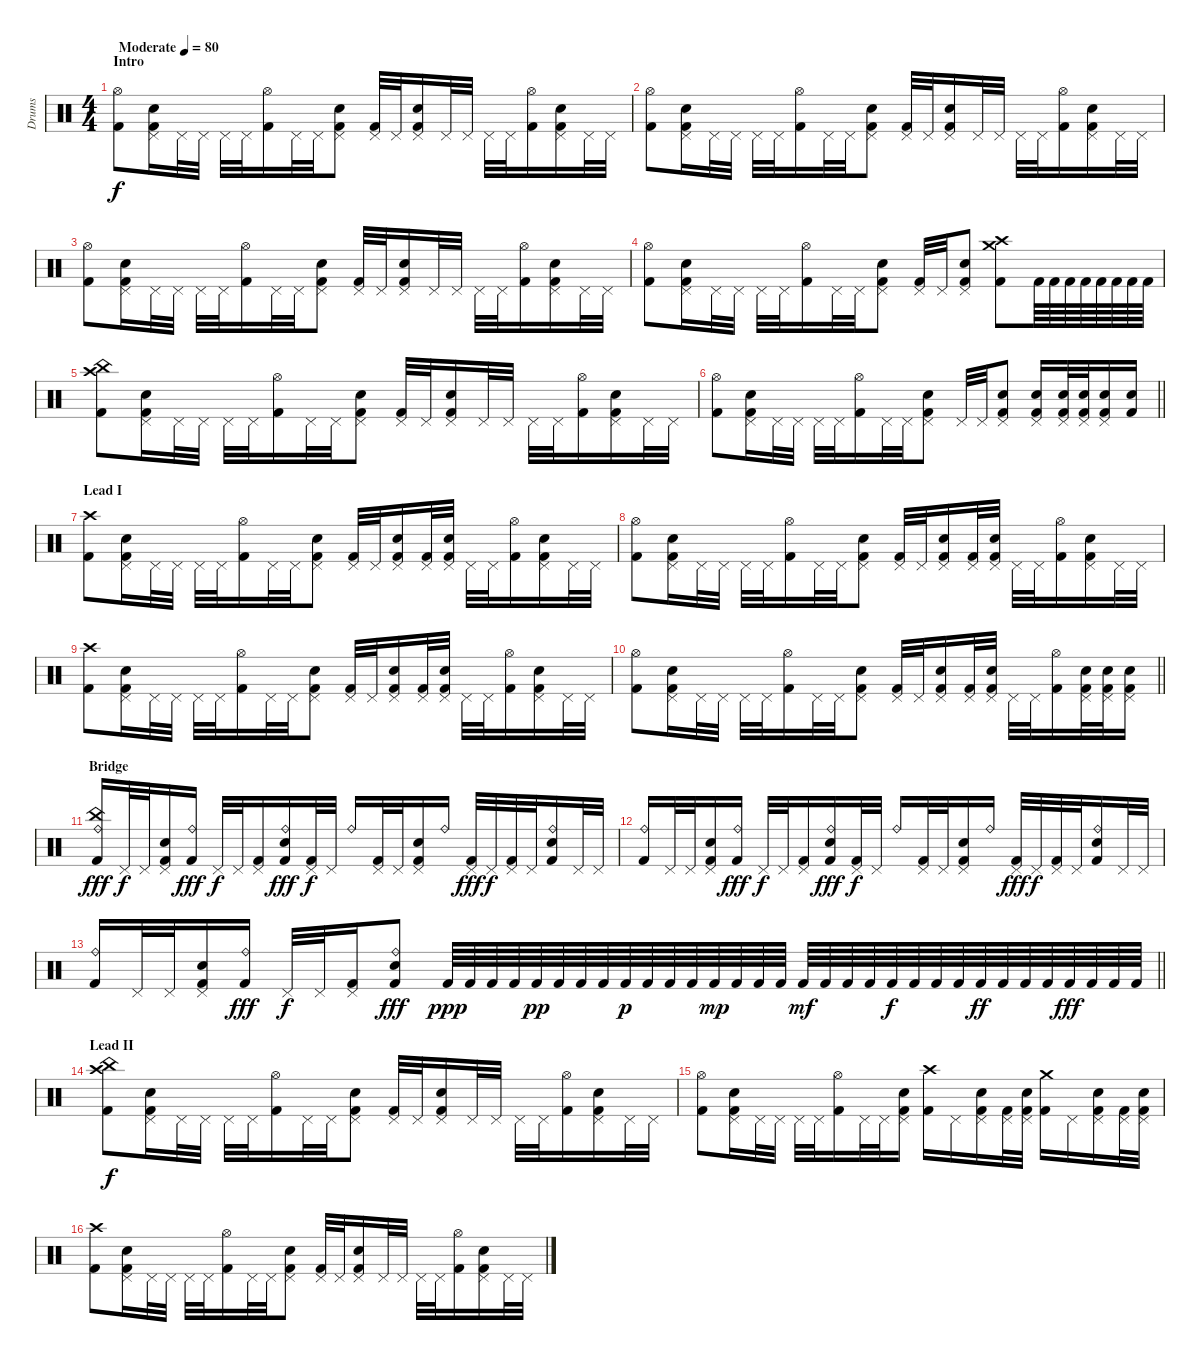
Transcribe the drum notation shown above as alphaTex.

\track ("Drums" "Drums") {instrument percussion}
\staff {score}
\articulation defaults
\ts (4 4)
\section ("" "Intro")
\tempo (80 "Moderate")
\clef neutral
\ks c
("Hi-Hat (open)" "Kick (hit) 2").8{dy f volume 4} ("Pedal Hi-Hat (hit)" "Snare (hit) 2" "Kick (hit) 2").16{volume 13} "Pedal Hi-Hat (hit)".32 "Pedal Hi-Hat (hit)".32 "Pedal Hi-Hat (hit)".32 "Pedal Hi-Hat (hit)".32 ("Hi-Hat (open)" "Kick (hit) 2").16 "Pedal Hi-Hat (hit)".32 "Pedal Hi-Hat (hit)".32 ("Pedal Hi-Hat (hit)" "Snare (hit) 2" "Kick (hit) 2").8 ("Pedal Hi-Hat (hit)" "Kick (hit) 2").32 "Pedal Hi-Hat (hit)".32 ("Pedal Hi-Hat (hit)" "Snare (hit) 2" "Kick (hit) 2").16 "Pedal Hi-Hat (hit)".32 "Pedal Hi-Hat (hit)".32 "Pedal Hi-Hat (hit)".32 "Pedal Hi-Hat (hit)".32 ("Hi-Hat (open)" "Kick (hit) 2").16 ("Pedal Hi-Hat (hit)" "Snare (hit) 2" "Kick (hit) 2").16 "Pedal Hi-Hat (hit)".32 "Pedal Hi-Hat (hit)".32 |
("Hi-Hat (open)" "Kick (hit) 2").8 ("Pedal Hi-Hat (hit)" "Snare (hit) 2" "Kick (hit) 2").16 "Pedal Hi-Hat (hit)".32 "Pedal Hi-Hat (hit)".32 "Pedal Hi-Hat (hit)".32 "Pedal Hi-Hat (hit)".32 ("Hi-Hat (open)" "Kick (hit) 2").16 "Pedal Hi-Hat (hit)".32 "Pedal Hi-Hat (hit)".32 ("Pedal Hi-Hat (hit)" "Snare (hit) 2" "Kick (hit) 2").8 ("Pedal Hi-Hat (hit)" "Kick (hit) 2").32 "Pedal Hi-Hat (hit)".32 ("Pedal Hi-Hat (hit)" "Snare (hit) 2" "Kick (hit) 2").16 "Pedal Hi-Hat (hit)".32 "Pedal Hi-Hat (hit)".32 "Pedal Hi-Hat (hit)".32 "Pedal Hi-Hat (hit)".32 ("Hi-Hat (open)" "Kick (hit) 2").16 ("Pedal Hi-Hat (hit)" "Snare (hit) 2" "Kick (hit) 2").16 "Pedal Hi-Hat (hit)".32 "Pedal Hi-Hat (hit)".32 |
("Hi-Hat (open)" "Kick (hit) 2").8 ("Pedal Hi-Hat (hit)" "Snare (hit) 2" "Kick (hit) 2").16 "Pedal Hi-Hat (hit)".32 "Pedal Hi-Hat (hit)".32 "Pedal Hi-Hat (hit)".32 "Pedal Hi-Hat (hit)".32 ("Hi-Hat (open)" "Kick (hit) 2").16 "Pedal Hi-Hat (hit)".32 "Pedal Hi-Hat (hit)".32 ("Pedal Hi-Hat (hit)" "Snare (hit) 2" "Kick (hit) 2").8 ("Pedal Hi-Hat (hit)" "Kick (hit) 2").32 "Pedal Hi-Hat (hit)".32 ("Pedal Hi-Hat (hit)" "Snare (hit) 2" "Kick (hit) 2").16 "Pedal Hi-Hat (hit)".32 "Pedal Hi-Hat (hit)".32 "Pedal Hi-Hat (hit)".32 "Pedal Hi-Hat (hit)".32 ("Hi-Hat (open)" "Kick (hit) 2").16 ("Pedal Hi-Hat (hit)" "Snare (hit) 2" "Kick (hit) 2").16 "Pedal Hi-Hat (hit)".32 "Pedal Hi-Hat (hit)".32 |
("Hi-Hat (open)" "Kick (hit) 2").8 ("Pedal Hi-Hat (hit)" "Snare (hit) 2" "Kick (hit) 2").16 "Pedal Hi-Hat (hit)".32 "Pedal Hi-Hat (hit)".32 "Pedal Hi-Hat (hit)".32 "Pedal Hi-Hat (hit)".32 ("Hi-Hat (open)" "Kick (hit) 2").16 "Pedal Hi-Hat (hit)".32 "Pedal Hi-Hat (hit)".32 ("Pedal Hi-Hat (hit)" "Snare (hit) 2" "Kick (hit) 2").8 ("Pedal Hi-Hat (hit)" "Kick (hit) 2").32 "Pedal Hi-Hat (hit)".32 ("Pedal Hi-Hat (hit)" "Snare (hit) 2" "Kick (hit) 2").8 ("Crash high (hit)" "Crash medium (hit)" "Kick (hit) 2").8 "Kick (hit) 2".64 "Kick (hit) 2".64 "Kick (hit) 2".64 "Kick (hit) 2".64 "Kick (hit) 2".64 "Kick (hit) 2".64 "Kick (hit) 2".64 "Kick (hit) 2".64 |
("Crash high (hit)" "China (hit)" "Kick (hit) 2").8 ("Pedal Hi-Hat (hit)" "Snare (hit) 2" "Kick (hit) 2").16 "Pedal Hi-Hat (hit)".32 "Pedal Hi-Hat (hit)".32 "Pedal Hi-Hat (hit)".32 "Pedal Hi-Hat (hit)".32 ("Hi-Hat (open)" "Kick (hit) 2").16 "Pedal Hi-Hat (hit)".32 "Pedal Hi-Hat (hit)".32 ("Pedal Hi-Hat (hit)" "Snare (hit) 2" "Kick (hit) 2").8 ("Pedal Hi-Hat (hit)" "Kick (hit) 2").32 "Pedal Hi-Hat (hit)".32 ("Pedal Hi-Hat (hit)" "Snare (hit) 2" "Kick (hit) 2").16 "Pedal Hi-Hat (hit)".32 "Pedal Hi-Hat (hit)".32 "Pedal Hi-Hat (hit)".32 "Pedal Hi-Hat (hit)".32 ("Hi-Hat (open)" "Kick (hit) 2").16 ("Pedal Hi-Hat (hit)" "Snare (hit) 2" "Kick (hit) 2").16 "Pedal Hi-Hat (hit)".32 "Pedal Hi-Hat (hit)".32 |
\barLineRight lightlight
("Hi-Hat (open)" "Kick (hit) 2").8 ("Pedal Hi-Hat (hit)" "Snare (hit) 2" "Kick (hit) 2").16 "Pedal Hi-Hat (hit)".32 "Pedal Hi-Hat (hit)".32 "Pedal Hi-Hat (hit)".32 "Pedal Hi-Hat (hit)".32 ("Hi-Hat (open)" "Kick (hit) 2").16 "Pedal Hi-Hat (hit)".32 "Pedal Hi-Hat (hit)".32 ("Pedal Hi-Hat (hit)" "Snare (hit) 2" "Kick (hit) 2").8 "Pedal Hi-Hat (hit)".32 "Pedal Hi-Hat (hit)".32 ("Pedal Hi-Hat (hit)" "Snare (hit) 2" "Kick (hit) 2").8 ("Pedal Hi-Hat (hit)" "Snare (hit) 2" "Kick (hit) 2").16 ("Pedal Hi-Hat (hit)" "Snare (hit) 2" "Kick (hit) 2").32 ("Pedal Hi-Hat (hit)" "Snare (hit) 2" "Kick (hit) 2").32 ("Pedal Hi-Hat (hit)" "Snare (hit) 2" "Kick (hit) 2").16 ("Snare (hit) 2" "Kick (hit) 2").16 |
\section ("" "Lead I")
("Crash high (hit)" "Kick (hit) 2").8 ("Pedal Hi-Hat (hit)" "Snare (hit) 2" "Kick (hit) 2").16 "Pedal Hi-Hat (hit)".32 "Pedal Hi-Hat (hit)".32 "Pedal Hi-Hat (hit)".32 "Pedal Hi-Hat (hit)".32 ("Hi-Hat (open)" "Kick (hit) 2").16 "Pedal Hi-Hat (hit)".32 "Pedal Hi-Hat (hit)".32 ("Pedal Hi-Hat (hit)" "Snare (hit) 2" "Kick (hit) 2").8 ("Pedal Hi-Hat (hit)" "Kick (hit) 2").32 "Pedal Hi-Hat (hit)".32 ("Pedal Hi-Hat (hit)" "Snare (hit) 2" "Kick (hit) 2").16 ("Pedal Hi-Hat (hit)" "Kick (hit) 2").32 ("Pedal Hi-Hat (hit)" "Snare (hit) 2" "Kick (hit) 2").32 "Pedal Hi-Hat (hit)".32 "Pedal Hi-Hat (hit)".32 ("Hi-Hat (open)" "Kick (hit) 2").16 ("Pedal Hi-Hat (hit)" "Snare (hit) 2" "Kick (hit) 2").16 "Pedal Hi-Hat (hit)".32 "Pedal Hi-Hat (hit)".32 |
("Hi-Hat (open)" "Kick (hit) 2").8 ("Pedal Hi-Hat (hit)" "Snare (hit) 2" "Kick (hit) 2").16 "Pedal Hi-Hat (hit)".32 "Pedal Hi-Hat (hit)".32 "Pedal Hi-Hat (hit)".32 "Pedal Hi-Hat (hit)".32 ("Hi-Hat (open)" "Kick (hit) 2").16 "Pedal Hi-Hat (hit)".32 "Pedal Hi-Hat (hit)".32 ("Pedal Hi-Hat (hit)" "Snare (hit) 2" "Kick (hit) 2").8 ("Pedal Hi-Hat (hit)" "Kick (hit) 2").32 "Pedal Hi-Hat (hit)".32 ("Pedal Hi-Hat (hit)" "Snare (hit) 2" "Kick (hit) 2").16 ("Pedal Hi-Hat (hit)" "Kick (hit) 2").32 ("Pedal Hi-Hat (hit)" "Snare (hit) 2" "Kick (hit) 2").32 "Pedal Hi-Hat (hit)".32 "Pedal Hi-Hat (hit)".32 ("Hi-Hat (open)" "Kick (hit) 2").16 ("Pedal Hi-Hat (hit)" "Snare (hit) 2" "Kick (hit) 2").16 "Pedal Hi-Hat (hit)".32 "Pedal Hi-Hat (hit)".32 |
("Crash high (hit)" "Kick (hit) 2").8 ("Pedal Hi-Hat (hit)" "Snare (hit) 2" "Kick (hit) 2").16 "Pedal Hi-Hat (hit)".32 "Pedal Hi-Hat (hit)".32 "Pedal Hi-Hat (hit)".32 "Pedal Hi-Hat (hit)".32 ("Hi-Hat (open)" "Kick (hit) 2").16 "Pedal Hi-Hat (hit)".32 "Pedal Hi-Hat (hit)".32 ("Pedal Hi-Hat (hit)" "Snare (hit) 2" "Kick (hit) 2").8 ("Pedal Hi-Hat (hit)" "Kick (hit) 2").32 "Pedal Hi-Hat (hit)".32 ("Pedal Hi-Hat (hit)" "Snare (hit) 2" "Kick (hit) 2").16 ("Pedal Hi-Hat (hit)" "Kick (hit) 2").32 ("Pedal Hi-Hat (hit)" "Snare (hit) 2" "Kick (hit) 2").32 "Pedal Hi-Hat (hit)".32 "Pedal Hi-Hat (hit)".32 ("Hi-Hat (open)" "Kick (hit) 2").16 ("Pedal Hi-Hat (hit)" "Snare (hit) 2" "Kick (hit) 2").16 "Pedal Hi-Hat (hit)".32 "Pedal Hi-Hat (hit)".32 |
\barLineRight lightlight
("Hi-Hat (open)" "Kick (hit) 2").8 ("Pedal Hi-Hat (hit)" "Snare (hit) 2" "Kick (hit) 2").16 "Pedal Hi-Hat (hit)".32 "Pedal Hi-Hat (hit)".32 "Pedal Hi-Hat (hit)".32 "Pedal Hi-Hat (hit)".32 ("Hi-Hat (open)" "Kick (hit) 2").16 "Pedal Hi-Hat (hit)".32 "Pedal Hi-Hat (hit)".32 ("Pedal Hi-Hat (hit)" "Snare (hit) 2" "Kick (hit) 2").8 ("Pedal Hi-Hat (hit)" "Kick (hit) 2").32 "Pedal Hi-Hat (hit)".32 ("Pedal Hi-Hat (hit)" "Snare (hit) 2" "Kick (hit) 2").16 ("Pedal Hi-Hat (hit)" "Kick (hit) 2").32 ("Pedal Hi-Hat (hit)" "Snare (hit) 2" "Kick (hit) 2").32 "Pedal Hi-Hat (hit)".32 "Pedal Hi-Hat (hit)".32 ("Hi-Hat (open)" "Kick (hit) 2").16 ("Pedal Hi-Hat (hit)" "Snare (hit) 2" "Kick (hit) 2").32 ("Pedal Hi-Hat (hit)" "Snare (hit) 2" "Kick (hit) 2").32 ("Pedal Hi-Hat (hit)" "Snare (hit) 2" "Kick (hit) 2").16 |
\section ("" "Bridge")
("China (hit)" "Ride (bell)" "Kick (hit) 2").16{dy fff} "Pedal Hi-Hat (hit)".32{dy f} "Pedal Hi-Hat (hit)".32 ("Pedal Hi-Hat (hit)" "Snare (hit) 2" "Kick (hit) 2").16 ("Ride (bell)" "Kick (hit) 2").16{dy fff} "Pedal Hi-Hat (hit)".32{dy f} "Pedal Hi-Hat (hit)".32 ("Pedal Hi-Hat (hit)" "Kick (hit) 2").16 ("Ride (bell)" "Snare (hit) 2" "Kick (hit) 2").16{dy fff} ("Pedal Hi-Hat (hit)" "Kick (hit) 2").32{dy f} "Pedal Hi-Hat (hit)".32 "Ride (bell)".16 ("Pedal Hi-Hat (hit)" "Kick (hit) 2").32 "Pedal Hi-Hat (hit)".32 ("Pedal Hi-Hat (hit)" "Snare (hit) 2" "Kick (hit) 2").16 "Ride (bell)".16 ("Pedal Hi-Hat (hit)" "Kick (hit) 2").32{dy fff} "Pedal Hi-Hat (hit)".32{dy f} ("Pedal Hi-Hat (hit)" "Kick (hit) 2").32 "Pedal Hi-Hat (hit)".32 ("Ride (bell)" "Snare (hit) 2" "Kick (hit) 2").16 "Pedal Hi-Hat (hit)".32 "Pedal Hi-Hat (hit)".32 |
("Ride (bell)" "Kick (hit) 2").16 "Pedal Hi-Hat (hit)".32 "Pedal Hi-Hat (hit)".32 ("Pedal Hi-Hat (hit)" "Snare (hit) 2" "Kick (hit) 2").16 ("Ride (bell)" "Kick (hit) 2").16{dy fff} "Pedal Hi-Hat (hit)".32{dy f} "Pedal Hi-Hat (hit)".32 ("Pedal Hi-Hat (hit)" "Kick (hit) 2").16 ("Ride (bell)" "Snare (hit) 2" "Kick (hit) 2").16{dy fff} ("Pedal Hi-Hat (hit)" "Kick (hit) 2").32{dy f} "Pedal Hi-Hat (hit)".32 "Ride (bell)".16 ("Pedal Hi-Hat (hit)" "Kick (hit) 2").32 "Pedal Hi-Hat (hit)".32 ("Pedal Hi-Hat (hit)" "Snare (hit) 2" "Kick (hit) 2").16 "Ride (bell)".16 ("Pedal Hi-Hat (hit)" "Kick (hit) 2").32{dy fff} "Pedal Hi-Hat (hit)".32{dy f} ("Pedal Hi-Hat (hit)" "Kick (hit) 2").32 "Pedal Hi-Hat (hit)".32 ("Ride (bell)" "Snare (hit) 2" "Kick (hit) 2").16 "Pedal Hi-Hat (hit)".32 "Pedal Hi-Hat (hit)".32 |
\barLineRight lightlight
("Ride (bell)" "Kick (hit) 2").16 "Pedal Hi-Hat (hit)".32 "Pedal Hi-Hat (hit)".32 ("Pedal Hi-Hat (hit)" "Snare (hit) 2" "Kick (hit) 2").16 ("Ride (bell)" "Kick (hit) 2").16{dy fff} "Pedal Hi-Hat (hit)".32{dy f} "Pedal Hi-Hat (hit)".32 ("Pedal Hi-Hat (hit)" "Kick (hit) 2").16 ("Ride (bell)" "Snare (hit) 2" "Kick (hit) 2").8{dy fff} "Kick (hit) 2".64{dy ppp} "Kick (hit) 2".64 "Kick (hit) 2".64 "Kick (hit) 2".64 "Kick (hit) 2".64{dy pp} "Kick (hit) 2".64 "Kick (hit) 2".64 "Kick (hit) 2".64 "Kick (hit) 2".64{dy p} "Kick (hit) 2".64 "Kick (hit) 2".64 "Kick (hit) 2".64 "Kick (hit) 2".64{dy mp} "Kick (hit) 2".64 "Kick (hit) 2".64 "Kick (hit) 2".64 "Kick (hit) 2".64{dy mf} "Kick (hit) 2".64 "Kick (hit) 2".64 "Kick (hit) 2".64 "Kick (hit) 2".64{dy f} "Kick (hit) 2".64 "Kick (hit) 2".64 "Kick (hit) 2".64 "Kick (hit) 2".64{dy ff} "Kick (hit) 2".64 "Kick (hit) 2".64 "Kick (hit) 2".64 "Kick (hit) 2".64{dy fff} "Kick (hit) 2".64 "Kick (hit) 2".64 "Kick (hit) 2".64 |
\section ("" "Lead II")
("Crash high (hit)" "China (hit)" "Kick (hit) 2").8{dy f} ("Pedal Hi-Hat (hit)" "Snare (hit) 2" "Kick (hit) 2").16 "Pedal Hi-Hat (hit)".32 "Pedal Hi-Hat (hit)".32 "Pedal Hi-Hat (hit)".32 "Pedal Hi-Hat (hit)".32 ("Hi-Hat (open)" "Kick (hit) 2").16 "Pedal Hi-Hat (hit)".32 "Pedal Hi-Hat (hit)".32 ("Pedal Hi-Hat (hit)" "Snare (hit) 2" "Kick (hit) 2").8 ("Pedal Hi-Hat (hit)" "Kick (hit) 2").32 "Pedal Hi-Hat (hit)".32 ("Pedal Hi-Hat (hit)" "Snare (hit) 2" "Kick (hit) 2").16 "Pedal Hi-Hat (hit)".32 "Pedal Hi-Hat (hit)".32 "Pedal Hi-Hat (hit)".32 "Pedal Hi-Hat (hit)".32 ("Hi-Hat (open)" "Kick (hit) 2").16 ("Pedal Hi-Hat (hit)" "Snare (hit) 2" "Kick (hit) 2").16 "Pedal Hi-Hat (hit)".32 "Pedal Hi-Hat (hit)".32 |
("Hi-Hat (open)" "Kick (hit) 2").8 ("Pedal Hi-Hat (hit)" "Snare (hit) 2" "Kick (hit) 2").16 "Pedal Hi-Hat (hit)".32 "Pedal Hi-Hat (hit)".32 "Pedal Hi-Hat (hit)".32 "Pedal Hi-Hat (hit)".32 ("Hi-Hat (open)" "Kick (hit) 2").16 "Pedal Hi-Hat (hit)".32 "Pedal Hi-Hat (hit)".32 ("Pedal Hi-Hat (hit)" "Snare (hit) 2" "Kick (hit) 2").16 ("Crash high (hit)" "Kick (hit) 2").16 "Pedal Hi-Hat (hit)".16 ("Pedal Hi-Hat (hit)" "Snare (hit) 2" "Kick (hit) 2").16 ("Pedal Hi-Hat (hit)" "Kick (hit) 2").32 ("Pedal Hi-Hat (hit)" "Snare (hit) 2" "Kick (hit) 2").32 ("Crash medium (hit)" "Kick (hit) 2").16 "Pedal Hi-Hat (hit)".16 ("Pedal Hi-Hat (hit)" "Snare (hit) 2" "Kick (hit) 2").16 ("Pedal Hi-Hat (hit)" "Kick (hit) 2").32 ("Pedal Hi-Hat (hit)" "Snare (hit) 2" "Kick (hit) 2").32 |
("Crash high (hit)" "Kick (hit) 2").8 ("Pedal Hi-Hat (hit)" "Snare (hit) 2" "Kick (hit) 2").16 "Pedal Hi-Hat (hit)".32 "Pedal Hi-Hat (hit)".32 "Pedal Hi-Hat (hit)".32 "Pedal Hi-Hat (hit)".32 ("Hi-Hat (open)" "Kick (hit) 2").16 "Pedal Hi-Hat (hit)".32 "Pedal Hi-Hat (hit)".32 ("Pedal Hi-Hat (hit)" "Snare (hit) 2" "Kick (hit) 2").8 ("Pedal Hi-Hat (hit)" "Kick (hit) 2").32 "Pedal Hi-Hat (hit)".32 ("Pedal Hi-Hat (hit)" "Snare (hit) 2" "Kick (hit) 2").16 "Pedal Hi-Hat (hit)".32 "Pedal Hi-Hat (hit)".32 "Pedal Hi-Hat (hit)".32 "Pedal Hi-Hat (hit)".32 ("Hi-Hat (open)" "Kick (hit) 2").16 ("Pedal Hi-Hat (hit)" "Snare (hit) 2" "Kick (hit) 2").16 "Pedal Hi-Hat (hit)".32 "Pedal Hi-Hat (hit)".32
